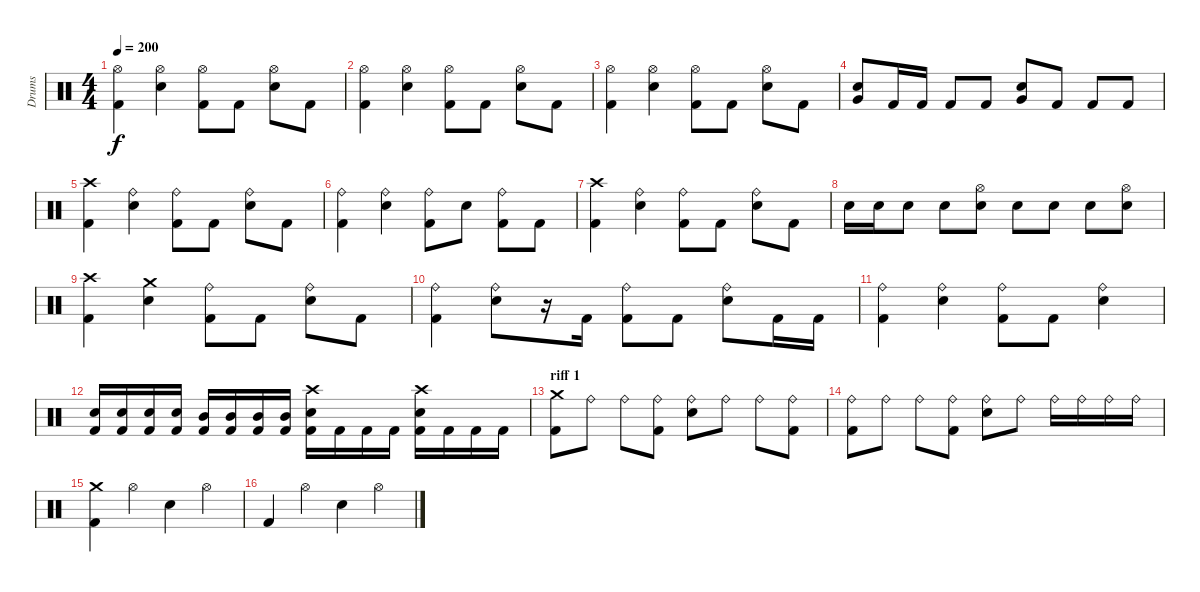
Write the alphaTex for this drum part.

\track ("Drums" "Drums") {instrument percussion}
\staff {score}
\articulation defaults
\ts (4 4)
\tempo 200
\clef neutral
\ks c
("Hi-Hat (open)" "Kick (hit) 2").4{dy f} ("Hi-Hat (open)" "Electric Snare (hit)").4 ("Hi-Hat (open)" "Kick (hit) 2").8 "Kick (hit) 2".8 ("Hi-Hat (open)" "Electric Snare (hit)").8 "Kick (hit) 2".8 |
("Hi-Hat (open)" "Kick (hit) 2").4 ("Hi-Hat (open)" "Electric Snare (hit)").4 ("Hi-Hat (open)" "Kick (hit) 2").8 "Kick (hit) 2".8 ("Hi-Hat (open)" "Electric Snare (hit)").8 "Kick (hit) 2".8 |
("Hi-Hat (open)" "Kick (hit) 2").4 ("Hi-Hat (open)" "Electric Snare (hit)").4 ("Hi-Hat (open)" "Kick (hit) 2").8 "Kick (hit) 2".8 ("Hi-Hat (open)" "Electric Snare (hit)").8 "Kick (hit) 2".8 |
("Very Low Tom (hit)" "Electric Snare (hit)").8 "Kick (hit) 2".16 "Kick (hit) 2".16 "Kick (hit) 2".8 "Kick (hit) 2".8 ("Very Low Tom (hit)" "Electric Snare (hit)").8 "Kick (hit) 2".8 "Kick (hit) 2".8 "Kick (hit) 2".8 |
("Crash high (hit)" "Kick (hit) 2").4 ("Ride (bell)" "Electric Snare (hit)").4 ("Ride (bell)" "Kick (hit) 2").8 "Kick (hit) 2".8 ("Ride (bell)" "Electric Snare (hit)").8 "Kick (hit) 2".8 |
("Ride (bell)" "Kick (hit) 2").4 ("Ride (bell)" "Electric Snare (hit)").4 ("Ride (bell)" "Kick (hit) 2").8 "Electric Snare (hit)".8 ("Ride (bell)" "Kick (hit) 2").8 "Kick (hit) 2".8 |
("Crash high (hit)" "Kick (hit) 2").4 ("Ride (bell)" "Electric Snare (hit)").4 ("Ride (bell)" "Kick (hit) 2").8 "Kick (hit) 2".8 ("Ride (bell)" "Electric Snare (hit)").8 "Kick (hit) 2".8 |
"Electric Snare (hit)".16 "Electric Snare (hit)".16 "Electric Snare (hit)".8 "Electric Snare (hit)".8 ("Electric Snare (hit)" "Hi-Hat (open)").8 "Electric Snare (hit)".8 "Electric Snare (hit)".8 "Electric Snare (hit)".8 ("Electric Snare (hit)" "Hi-Hat (open)").8 |
("Crash high (hit)" "Kick (hit) 2").4 ("Crash medium (hit)" "Electric Snare (hit)").4 ("Ride (bell)" "Kick (hit) 2").8 "Kick (hit) 2".8 ("Ride (bell)" "Electric Snare (hit)").8 "Kick (hit) 2".8 |
("Ride (bell)" "Kick (hit) 2").4 ("Ride (bell)" "Electric Snare (hit)").8 r.16 "Kick (hit) 2".16 ("Ride (bell)" "Kick (hit) 2").8 "Kick (hit) 2".8 ("Ride (bell)" "Electric Snare (hit)").8 "Kick (hit) 2".16 "Kick (hit) 2".16 |
("Ride (bell)" "Kick (hit) 2").4 ("Ride (bell)" "Electric Snare (hit)").4 ("Ride (bell)" "Kick (hit) 2").8 "Kick (hit) 2".8 ("Ride (bell)" "Electric Snare (hit)").4 |
("Electric Snare (hit)" "Kick (hit) 2").16 ("Electric Snare (hit)" "Kick (hit) 2").16 ("Electric Snare (hit)" "Kick (hit) 2").16 ("Electric Snare (hit)" "Kick (hit) 2").16 ("Mid Tom (hit)" "Kick (hit) 2").16 ("Mid Tom (hit)" "Kick (hit) 2").16 ("Mid Tom (hit)" "Kick (hit) 2").16 ("Mid Tom (hit)" "Kick (hit) 2").16 ("Crash high (hit)" "Electric Snare (hit)" "Kick (hit) 2").16 "Kick (hit) 2".16 "Kick (hit) 2".16 "Kick (hit) 2".16 ("Crash high (hit)" "Electric Snare (hit)" "Kick (hit) 2").16 "Kick (hit) 2".16 "Kick (hit) 2".16 "Kick (hit) 2".16 |
\section ("" "riff 1")
("Crash medium (hit)" "Kick (hit) 2").8 "Ride (bell)".8 "Ride (bell)".8 ("Ride (bell)" "Kick (hit) 2").8 ("Ride (bell)" "Electric Snare (hit)").8 "Ride (bell)".8 "Ride (bell)".8 ("Ride (bell)" "Kick (hit) 2").8 |
("Ride (bell)" "Kick (hit) 2").8 "Ride (bell)".8 "Ride (bell)".8 ("Ride (bell)" "Kick (hit) 2").8 ("Ride (bell)" "Electric Snare (hit)").8 "Ride (bell)".8 "Ride (bell)".16 "Ride (bell)".16 "Ride (bell)".16 "Ride (bell)".16 |
("Crash medium (hit)" "Kick (hit) 2").4 "Hi-Hat (open)".4 "Electric Snare (hit)".4 "Hi-Hat (open)".4 |
"Kick (hit) 2".4 "Hi-Hat (open)".4 "Electric Snare (hit)".4 "Hi-Hat (open)".4
